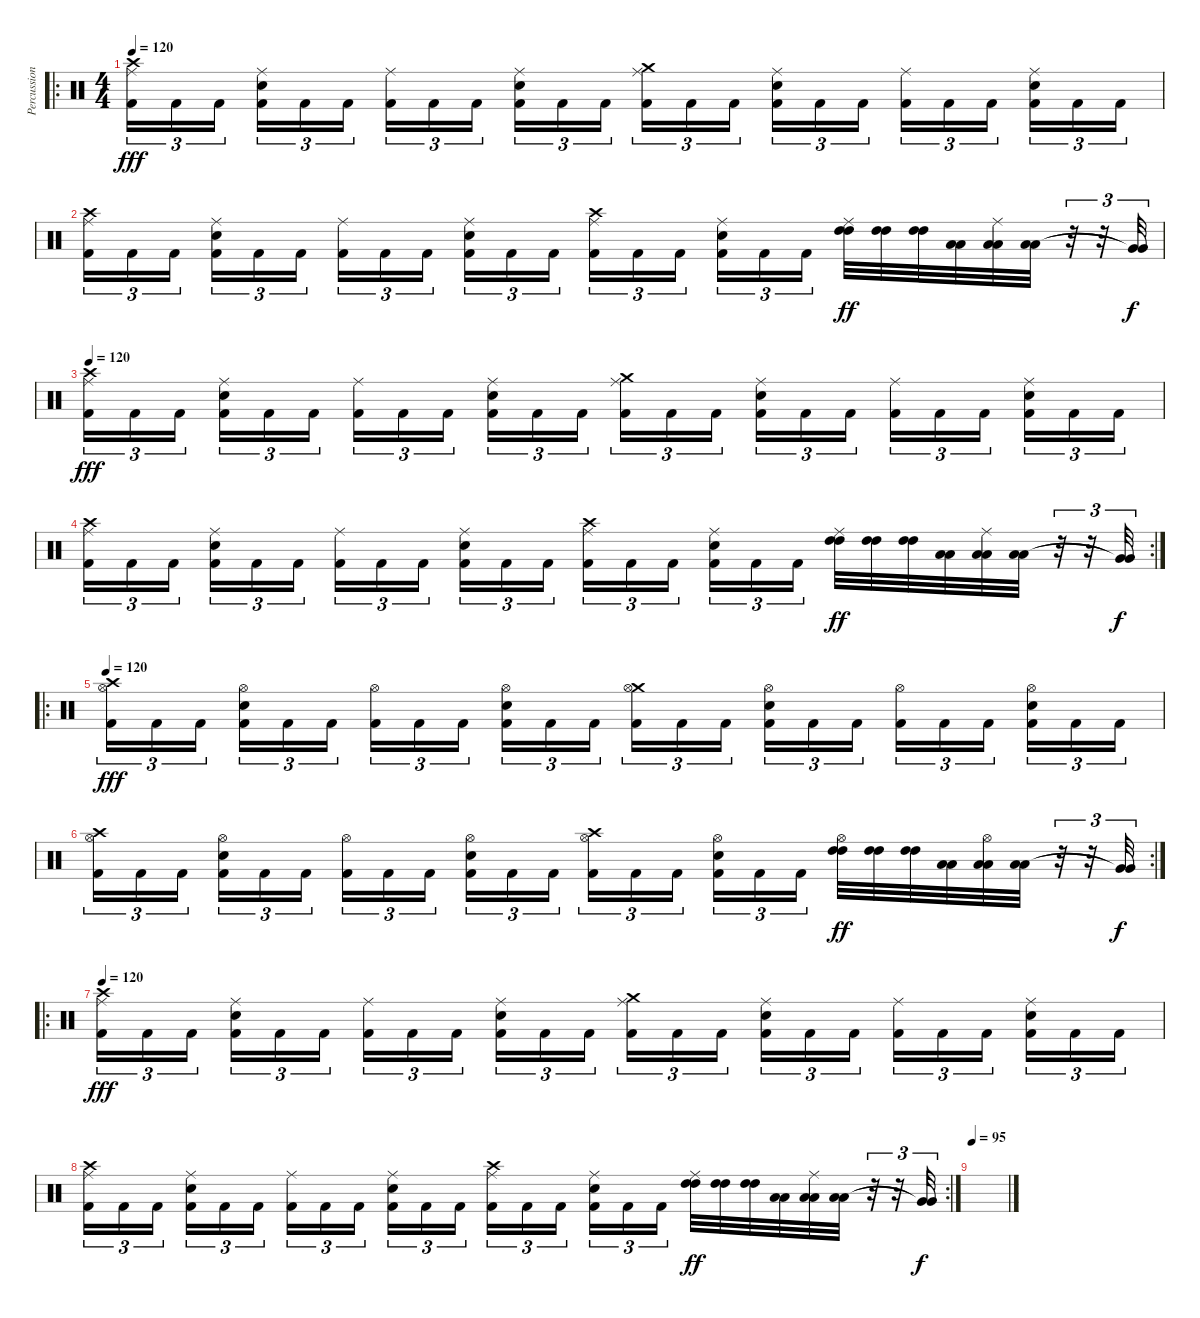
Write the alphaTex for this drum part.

\track ("Percussion" "Percussion") {instrument percussion}
\staff {score}
\articulation defaults
\ro
\ts (4 4)
\tempo 120
\clef neutral
\ks c
("Crash high (hit)" "Ride (middle)" "Kick (hit) 2").16{tu (3 2) dy fff} "Kick (hit) 2".16{tu (3 2)} "Kick (hit) 2".16{tu (3 2)} ("Ride (middle)" "Electric Snare (hit)" "Kick (hit) 2").16{tu (3 2)} "Kick (hit) 2".16{tu (3 2)} "Kick (hit) 2".16{tu (3 2)} ("Ride (middle)" "Kick (hit) 2").16{tu (3 2)} "Kick (hit) 2".16{tu (3 2)} "Kick (hit) 2".16{tu (3 2)} ("Ride (middle)" "Electric Snare (hit)" "Kick (hit) 2").16{tu (3 2)} "Kick (hit) 2".16{tu (3 2)} "Kick (hit) 2".16{tu (3 2)} ("Crash medium (hit)" "Ride (middle)" "Kick (hit) 2").16{tu (3 2)} "Kick (hit) 2".16{tu (3 2)} "Kick (hit) 2".16{tu (3 2)} ("Ride (middle)" "Electric Snare (hit)" "Kick (hit) 2").16{tu (3 2)} "Kick (hit) 2".16{tu (3 2)} "Kick (hit) 2".16{tu (3 2)} ("Ride (middle)" "Kick (hit) 2").16{tu (3 2)} "Kick (hit) 2".16{tu (3 2)} "Kick (hit) 2".16{tu (3 2)} ("Ride (middle)" "Electric Snare (hit)" "Kick (hit) 2").16{tu (3 2)} "Kick (hit) 2".16{tu (3 2)} "Kick (hit) 2".16{tu (3 2)} |
("Crash high (hit)" "Ride (middle)" "Kick (hit) 2").16{tu (3 2)} "Kick (hit) 2".16{tu (3 2)} "Kick (hit) 2".16{tu (3 2)} ("Ride (middle)" "Electric Snare (hit)" "Kick (hit) 2").16{tu (3 2)} "Kick (hit) 2".16{tu (3 2)} "Kick (hit) 2".16{tu (3 2)} ("Ride (middle)" "Kick (hit) 2").16{tu (3 2)} "Kick (hit) 2".16{tu (3 2)} "Kick (hit) 2".16{tu (3 2)} ("Ride (middle)" "Electric Snare (hit)" "Kick (hit) 2").16{tu (3 2)} "Kick (hit) 2".16{tu (3 2)} "Kick (hit) 2".16{tu (3 2)} ("Crash high (hit)" "Ride (middle)" "Kick (hit) 2").16{tu (3 2)} "Kick (hit) 2".16{tu (3 2)} "Kick (hit) 2".16{tu (3 2)} ("Ride (middle)" "Electric Snare (hit)" "Kick (hit) 2").16{tu (3 2)} "Kick (hit) 2".16{tu (3 2)} "Kick (hit) 2".16{tu (3 2)} ("Ride (middle)" "High Tom (hit)" "High Tom (hit)").32{dy ff} ("High Tom (hit)" "High Tom (hit)").32 ("High Tom (hit)" "High Tom (hit)").32 ("Low Tom (hit)" "Low Tom (hit)").32 ("Ride (middle)" "Low Tom (hit)" "Low Tom (hit)").32 ("Low Tom (hit)" "Low Tom (hit)").32 r.32{tu (3 2)} r.32{tu (3 2)} ("Very Low Tom (hit)"{t} "Very Low Tom (hit)"{t}).32{tu (3 2) dy f} |
\tempo 120
("Crash high (hit)" "Ride (middle)" "Kick (hit) 2").16{tu (3 2) dy fff} "Kick (hit) 2".16{tu (3 2)} "Kick (hit) 2".16{tu (3 2)} ("Ride (middle)" "Electric Snare (hit)" "Kick (hit) 2").16{tu (3 2)} "Kick (hit) 2".16{tu (3 2)} "Kick (hit) 2".16{tu (3 2)} ("Ride (middle)" "Kick (hit) 2").16{tu (3 2)} "Kick (hit) 2".16{tu (3 2)} "Kick (hit) 2".16{tu (3 2)} ("Ride (middle)" "Electric Snare (hit)" "Kick (hit) 2").16{tu (3 2)} "Kick (hit) 2".16{tu (3 2)} "Kick (hit) 2".16{tu (3 2)} ("Crash medium (hit)" "Ride (middle)" "Kick (hit) 2").16{tu (3 2)} "Kick (hit) 2".16{tu (3 2)} "Kick (hit) 2".16{tu (3 2)} ("Ride (middle)" "Electric Snare (hit)" "Kick (hit) 2").16{tu (3 2)} "Kick (hit) 2".16{tu (3 2)} "Kick (hit) 2".16{tu (3 2)} ("Ride (middle)" "Kick (hit) 2").16{tu (3 2)} "Kick (hit) 2".16{tu (3 2)} "Kick (hit) 2".16{tu (3 2)} ("Ride (middle)" "Electric Snare (hit)" "Kick (hit) 2").16{tu (3 2)} "Kick (hit) 2".16{tu (3 2)} "Kick (hit) 2".16{tu (3 2)} |
\rc 2
("Crash high (hit)" "Ride (middle)" "Kick (hit) 2").16{tu (3 2)} "Kick (hit) 2".16{tu (3 2)} "Kick (hit) 2".16{tu (3 2)} ("Ride (middle)" "Electric Snare (hit)" "Kick (hit) 2").16{tu (3 2)} "Kick (hit) 2".16{tu (3 2)} "Kick (hit) 2".16{tu (3 2)} ("Ride (middle)" "Kick (hit) 2").16{tu (3 2)} "Kick (hit) 2".16{tu (3 2)} "Kick (hit) 2".16{tu (3 2)} ("Ride (middle)" "Electric Snare (hit)" "Kick (hit) 2").16{tu (3 2)} "Kick (hit) 2".16{tu (3 2)} "Kick (hit) 2".16{tu (3 2)} ("Crash high (hit)" "Ride (middle)" "Kick (hit) 2").16{tu (3 2)} "Kick (hit) 2".16{tu (3 2)} "Kick (hit) 2".16{tu (3 2)} ("Ride (middle)" "Electric Snare (hit)" "Kick (hit) 2").16{tu (3 2)} "Kick (hit) 2".16{tu (3 2)} "Kick (hit) 2".16{tu (3 2)} ("Ride (middle)" "High Tom (hit)" "High Tom (hit)").32{dy ff} ("High Tom (hit)" "High Tom (hit)").32 ("High Tom (hit)" "High Tom (hit)").32 ("Low Tom (hit)" "Low Tom (hit)").32 ("Ride (middle)" "Low Tom (hit)" "Low Tom (hit)").32 ("Low Tom (hit)" "Low Tom (hit)").32 r.32{tu (3 2)} r.32{tu (3 2)} ("Very Low Tom (hit)"{t} "Very Low Tom (hit)"{t}).32{tu (3 2) dy f} |
\ro
\tempo 120
("Crash high (hit)" "Hi-Hat (open)" "Kick (hit) 2").16{tu (3 2) dy fff} "Kick (hit) 2".16{tu (3 2)} "Kick (hit) 2".16{tu (3 2)} ("Hi-Hat (open)" "Electric Snare (hit)" "Kick (hit) 2").16{tu (3 2)} "Kick (hit) 2".16{tu (3 2)} "Kick (hit) 2".16{tu (3 2)} ("Hi-Hat (open)" "Kick (hit) 2").16{tu (3 2)} "Kick (hit) 2".16{tu (3 2)} "Kick (hit) 2".16{tu (3 2)} ("Hi-Hat (open)" "Electric Snare (hit)" "Kick (hit) 2").16{tu (3 2)} "Kick (hit) 2".16{tu (3 2)} "Kick (hit) 2".16{tu (3 2)} ("Crash medium (hit)" "Hi-Hat (open)" "Kick (hit) 2").16{tu (3 2)} "Kick (hit) 2".16{tu (3 2)} "Kick (hit) 2".16{tu (3 2)} ("Hi-Hat (open)" "Electric Snare (hit)" "Kick (hit) 2").16{tu (3 2)} "Kick (hit) 2".16{tu (3 2)} "Kick (hit) 2".16{tu (3 2)} ("Hi-Hat (open)" "Kick (hit) 2").16{tu (3 2)} "Kick (hit) 2".16{tu (3 2)} "Kick (hit) 2".16{tu (3 2)} ("Hi-Hat (open)" "Electric Snare (hit)" "Kick (hit) 2").16{tu (3 2)} "Kick (hit) 2".16{tu (3 2)} "Kick (hit) 2".16{tu (3 2)} |
\rc 2
("Crash high (hit)" "Hi-Hat (open)" "Kick (hit) 2").16{tu (3 2)} "Kick (hit) 2".16{tu (3 2)} "Kick (hit) 2".16{tu (3 2)} ("Hi-Hat (open)" "Electric Snare (hit)" "Kick (hit) 2").16{tu (3 2)} "Kick (hit) 2".16{tu (3 2)} "Kick (hit) 2".16{tu (3 2)} ("Hi-Hat (open)" "Kick (hit) 2").16{tu (3 2)} "Kick (hit) 2".16{tu (3 2)} "Kick (hit) 2".16{tu (3 2)} ("Hi-Hat (open)" "Electric Snare (hit)" "Kick (hit) 2").16{tu (3 2)} "Kick (hit) 2".16{tu (3 2)} "Kick (hit) 2".16{tu (3 2)} ("Crash high (hit)" "Hi-Hat (open)" "Kick (hit) 2").16{tu (3 2)} "Kick (hit) 2".16{tu (3 2)} "Kick (hit) 2".16{tu (3 2)} ("Hi-Hat (open)" "Electric Snare (hit)" "Kick (hit) 2").16{tu (3 2)} "Kick (hit) 2".16{tu (3 2)} "Kick (hit) 2".16{tu (3 2)} ("Hi-Hat (open)" "High Tom (hit)" "High Tom (hit)").32{dy ff} ("High Tom (hit)" "High Tom (hit)").32 ("High Tom (hit)" "High Tom (hit)").32 ("Low Tom (hit)" "Low Tom (hit)").32 ("Hi-Hat (open)" "Low Tom (hit)" "Low Tom (hit)").32 ("Low Tom (hit)" "Low Tom (hit)").32 r.32{tu (3 2)} r.32{tu (3 2)} ("Very Low Tom (hit)"{t} "Very Low Tom (hit)"{t}).32{tu (3 2) dy f} |
\ro
\tempo 120
("Crash high (hit)" "Ride (middle)" "Kick (hit) 2").16{tu (3 2) dy fff} "Kick (hit) 2".16{tu (3 2)} "Kick (hit) 2".16{tu (3 2)} ("Ride (middle)" "Electric Snare (hit)" "Kick (hit) 2").16{tu (3 2)} "Kick (hit) 2".16{tu (3 2)} "Kick (hit) 2".16{tu (3 2)} ("Ride (middle)" "Kick (hit) 2").16{tu (3 2)} "Kick (hit) 2".16{tu (3 2)} "Kick (hit) 2".16{tu (3 2)} ("Ride (middle)" "Electric Snare (hit)" "Kick (hit) 2").16{tu (3 2)} "Kick (hit) 2".16{tu (3 2)} "Kick (hit) 2".16{tu (3 2)} ("Crash medium (hit)" "Ride (middle)" "Kick (hit) 2").16{tu (3 2)} "Kick (hit) 2".16{tu (3 2)} "Kick (hit) 2".16{tu (3 2)} ("Ride (middle)" "Electric Snare (hit)" "Kick (hit) 2").16{tu (3 2)} "Kick (hit) 2".16{tu (3 2)} "Kick (hit) 2".16{tu (3 2)} ("Ride (middle)" "Kick (hit) 2").16{tu (3 2)} "Kick (hit) 2".16{tu (3 2)} "Kick (hit) 2".16{tu (3 2)} ("Ride (middle)" "Electric Snare (hit)" "Kick (hit) 2").16{tu (3 2)} "Kick (hit) 2".16{tu (3 2)} "Kick (hit) 2".16{tu (3 2)} |
\rc 2
("Crash high (hit)" "Ride (middle)" "Kick (hit) 2").16{tu (3 2)} "Kick (hit) 2".16{tu (3 2)} "Kick (hit) 2".16{tu (3 2)} ("Ride (middle)" "Electric Snare (hit)" "Kick (hit) 2").16{tu (3 2)} "Kick (hit) 2".16{tu (3 2)} "Kick (hit) 2".16{tu (3 2)} ("Ride (middle)" "Kick (hit) 2").16{tu (3 2)} "Kick (hit) 2".16{tu (3 2)} "Kick (hit) 2".16{tu (3 2)} ("Ride (middle)" "Electric Snare (hit)" "Kick (hit) 2").16{tu (3 2)} "Kick (hit) 2".16{tu (3 2)} "Kick (hit) 2".16{tu (3 2)} ("Crash high (hit)" "Ride (middle)" "Kick (hit) 2").16{tu (3 2)} "Kick (hit) 2".16{tu (3 2)} "Kick (hit) 2".16{tu (3 2)} ("Ride (middle)" "Electric Snare (hit)" "Kick (hit) 2").16{tu (3 2)} "Kick (hit) 2".16{tu (3 2)} "Kick (hit) 2".16{tu (3 2)} ("Ride (middle)" "High Tom (hit)" "High Tom (hit)").32{dy ff} ("High Tom (hit)" "High Tom (hit)").32 ("High Tom (hit)" "High Tom (hit)").32 ("Low Tom (hit)" "Low Tom (hit)").32 ("Ride (middle)" "Low Tom (hit)" "Low Tom (hit)").32 ("Low Tom (hit)" "Low Tom (hit)").32 r.32{tu (3 2)} r.32{tu (3 2)} ("Very Low Tom (hit)"{t} "Very Low Tom (hit)"{t}).32{tu (3 2) dy f} |
\tempo 95
